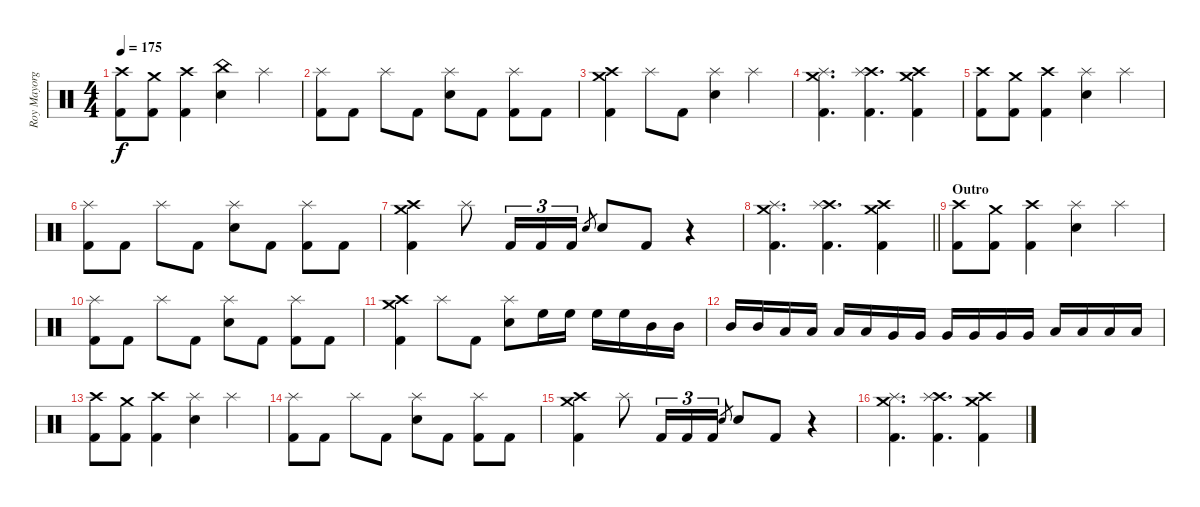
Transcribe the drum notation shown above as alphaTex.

\track ("Roy Mayorga" "Roy Mayorg") {instrument percussion}
\staff {score}
\articulation defaults
\ts (4 4)
\tempo 175
\clef neutral
\ks c
("Crash high (hit)" "Kick (hit) 2").8{dy f} ("Crash medium (hit)" "Kick (hit) 2").8 ("Crash high (hit)" "Kick (hit) 2").4 ("China (hit)" "Electric Snare (hit)").4 "Splash (hit)".4 |
("Splash (hit)" "Kick (hit) 2").8 "Kick (hit) 2".8 "Splash (hit)".8 "Kick (hit) 2".8 ("Splash (hit)" "Electric Snare (hit)").8 "Kick (hit) 2".8 ("Splash (hit)" "Kick (hit) 2").8 "Kick (hit) 2".8 |
("Crash high (hit)" "Crash medium (hit)" "Kick (hit) 2").4 "Splash (hit)".8 "Kick (hit) 2".8 ("Splash (hit)" "Electric Snare (hit)").4 "Splash (hit)".4 |
("Crash medium (hit)" "Splash (hit)" "Kick (hit) 2").4{d} ("Crash high (hit)" "Splash (hit)" "Kick (hit) 2").4{d} ("Crash high (hit)" "Crash medium (hit)" "Kick (hit) 2").4 |
("Crash high (hit)" "Kick (hit) 2").8 ("Crash medium (hit)" "Kick (hit) 2").8 ("Crash high (hit)" "Kick (hit) 2").4 ("Splash (hit)" "Electric Snare (hit)").4 "Splash (hit)".4 |
("Splash (hit)" "Kick (hit) 2").8 "Kick (hit) 2".8 "Splash (hit)".8 "Kick (hit) 2".8 ("Splash (hit)" "Electric Snare (hit)").8 "Kick (hit) 2".8 ("Splash (hit)" "Kick (hit) 2").8 "Kick (hit) 2".8 |
("Crash high (hit)" "Crash medium (hit)" "Kick (hit) 2").4 "Splash (hit)".8 "Kick (hit) 2".16{tu (3 2)} "Kick (hit) 2".16{tu (3 2)} "Kick (hit) 2".16{tu (3 2)} "Electric Snare (hit)".8{gr} "Electric Snare (hit)".8 "Kick (hit) 2".8 r.4 |
\barLineRight lightlight
("Crash medium (hit)" "Splash (hit)" "Kick (hit) 2").4{d} ("Crash high (hit)" "Splash (hit)" "Kick (hit) 2").4{d} ("Crash high (hit)" "Crash medium (hit)" "Kick (hit) 2").4 |
\section ("" "Outro")
("Crash high (hit)" "Kick (hit) 2").8 ("Crash medium (hit)" "Kick (hit) 2").8 ("Crash high (hit)" "Kick (hit) 2").4 ("Splash (hit)" "Electric Snare (hit)").4 "Splash (hit)".4 |
("Splash (hit)" "Kick (hit) 2").8 "Kick (hit) 2".8 "Splash (hit)".8 "Kick (hit) 2".8 ("Splash (hit)" "Electric Snare (hit)").8 "Kick (hit) 2".8 ("Splash (hit)" "Kick (hit) 2").8 "Kick (hit) 2".8 |
("Crash high (hit)" "Crash medium (hit)" "Kick (hit) 2").4 "Splash (hit)".8 "Kick (hit) 2".8 ("Splash (hit)" "Electric Snare (hit)").8 "High Floor Tom (hit)".16 "High Floor Tom (hit)".16 "High Floor Tom (hit)".16 "High Floor Tom (hit)".16 "Mid Tom (hit)".16 "Mid Tom (hit)".16 |
"Mid Tom (hit)".16 "Mid Tom (hit)".16 "Low Tom (hit)".16 "Low Tom (hit)".16 "Low Tom (hit)".16 "Low Tom (hit)".16 "Very Low Tom (hit)".16 "Very Low Tom (hit)".16 "Very Low Tom (hit)".16 "Very Low Tom (hit)".16 "Very Low Tom (hit)".16 "Very Low Tom (hit)".16 "Low Floor Tom (hit)".16 "Low Floor Tom (hit)".16 "Low Floor Tom (hit)".16 "Low Floor Tom (hit)".16 |
("Crash high (hit)" "Kick (hit) 2").8 ("Crash medium (hit)" "Kick (hit) 2").8 ("Crash high (hit)" "Kick (hit) 2").4 ("Splash (hit)" "Electric Snare (hit)").4 "Splash (hit)".4 |
("Splash (hit)" "Kick (hit) 2").8 "Kick (hit) 2".8 "Splash (hit)".8 "Kick (hit) 2".8 ("Splash (hit)" "Electric Snare (hit)").8 "Kick (hit) 2".8 ("Splash (hit)" "Kick (hit) 2").8 "Kick (hit) 2".8 |
("Crash high (hit)" "Crash medium (hit)" "Kick (hit) 2").4 "Splash (hit)".8 "Kick (hit) 2".16{tu (3 2)} "Kick (hit) 2".16{tu (3 2)} "Kick (hit) 2".16{tu (3 2)} "Electric Snare (hit)".8{gr} "Electric Snare (hit)".8 "Kick (hit) 2".8 r.4 |
("Crash medium (hit)" "Splash (hit)" "Kick (hit) 2").4{d} ("Crash high (hit)" "Splash (hit)" "Kick (hit) 2").4{d} ("Crash high (hit)" "Crash medium (hit)" "Kick (hit) 2").4
